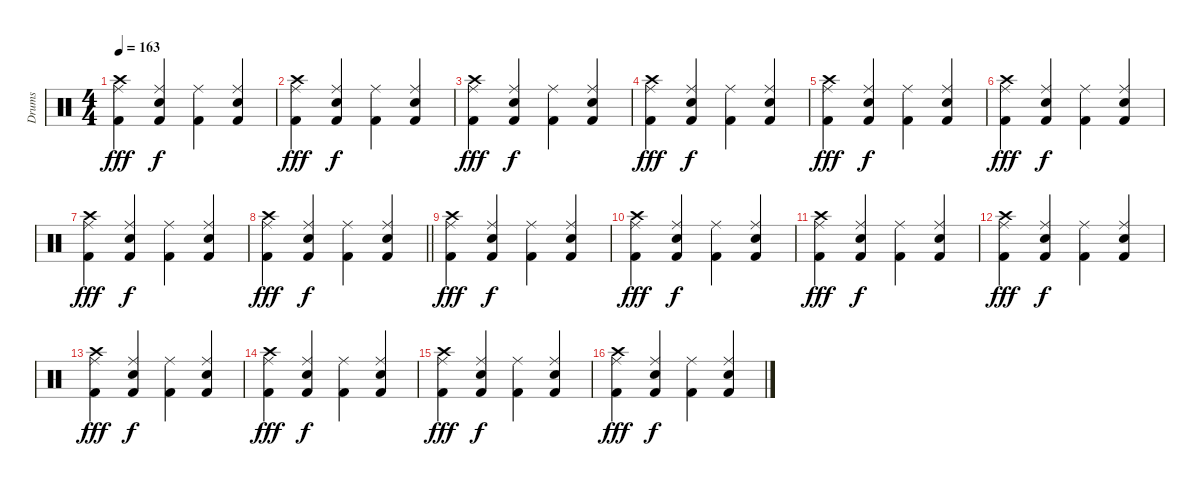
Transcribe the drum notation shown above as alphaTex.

\track ("Drums" "Drums") {instrument percussion}
\staff {score}
\articulation defaults
\ts (4 4)
\tempo 163
\clef neutral
\ks c
("Kick (hit) 2" "Crash high (hit)" "Ride (middle)").4{dy fff} ("Kick (hit) 2" "Snare (hit) 2" "Ride (middle)").4{dy f} ("Kick (hit) 2" "Ride (middle)").4 ("Kick (hit) 2" "Snare (hit) 2" "Ride (middle)").4 |
("Kick (hit) 2" "Crash high (hit)" "Ride (middle)").4{dy fff} ("Kick (hit) 2" "Snare (hit) 2" "Ride (middle)").4{dy f} ("Kick (hit) 2" "Ride (middle)").4 ("Kick (hit) 2" "Snare (hit) 2" "Ride (middle)").4 |
("Kick (hit) 2" "Crash high (hit)" "Ride (middle)").4{dy fff} ("Kick (hit) 2" "Snare (hit) 2" "Ride (middle)").4{dy f} ("Kick (hit) 2" "Ride (middle)").4 ("Kick (hit) 2" "Snare (hit) 2" "Ride (middle)").4 |
("Kick (hit) 2" "Crash high (hit)" "Ride (middle)").4{dy fff} ("Kick (hit) 2" "Snare (hit) 2" "Ride (middle)").4{dy f} ("Kick (hit) 2" "Ride (middle)").4 ("Kick (hit) 2" "Snare (hit) 2" "Ride (middle)").4 |
("Kick (hit) 2" "Crash high (hit)" "Ride (middle)").4{dy fff} ("Kick (hit) 2" "Snare (hit) 2" "Ride (middle)").4{dy f} ("Kick (hit) 2" "Ride (middle)").4 ("Kick (hit) 2" "Snare (hit) 2" "Ride (middle)").4 |
("Kick (hit) 2" "Crash high (hit)" "Ride (middle)").4{dy fff} ("Kick (hit) 2" "Snare (hit) 2" "Ride (middle)").4{dy f} ("Kick (hit) 2" "Ride (middle)").4 ("Kick (hit) 2" "Snare (hit) 2" "Ride (middle)").4 |
("Kick (hit) 2" "Crash high (hit)" "Ride (middle)").4{dy fff} ("Kick (hit) 2" "Snare (hit) 2" "Ride (middle)").4{dy f} ("Kick (hit) 2" "Ride (middle)").4 ("Kick (hit) 2" "Snare (hit) 2" "Ride (middle)").4 |
\barLineRight lightlight
("Kick (hit) 2" "Crash high (hit)" "Ride (middle)").4{dy fff} ("Kick (hit) 2" "Snare (hit) 2" "Ride (middle)").4{dy f} ("Kick (hit) 2" "Ride (middle)").4 ("Kick (hit) 2" "Snare (hit) 2" "Ride (middle)").4 |
("Kick (hit) 2" "Crash high (hit)" "Ride (middle)").4{dy fff} ("Kick (hit) 2" "Snare (hit) 2" "Ride (middle)").4{dy f} ("Kick (hit) 2" "Ride (middle)").4 ("Kick (hit) 2" "Snare (hit) 2" "Ride (middle)").4 |
("Kick (hit) 2" "Crash high (hit)" "Ride (middle)").4{dy fff} ("Kick (hit) 2" "Snare (hit) 2" "Ride (middle)").4{dy f} ("Kick (hit) 2" "Ride (middle)").4 ("Kick (hit) 2" "Snare (hit) 2" "Ride (middle)").4 |
("Kick (hit) 2" "Crash high (hit)" "Ride (middle)").4{dy fff} ("Kick (hit) 2" "Snare (hit) 2" "Ride (middle)").4{dy f} ("Kick (hit) 2" "Ride (middle)").4 ("Kick (hit) 2" "Snare (hit) 2" "Ride (middle)").4 |
("Kick (hit) 2" "Crash high (hit)" "Ride (middle)").4{dy fff} ("Kick (hit) 2" "Snare (hit) 2" "Ride (middle)").4{dy f} ("Kick (hit) 2" "Ride (middle)").4 ("Kick (hit) 2" "Snare (hit) 2" "Ride (middle)").4 |
("Kick (hit) 2" "Crash high (hit)" "Ride (middle)").4{dy fff} ("Kick (hit) 2" "Snare (hit) 2" "Ride (middle)").4{dy f} ("Kick (hit) 2" "Ride (middle)").4 ("Kick (hit) 2" "Snare (hit) 2" "Ride (middle)").4 |
("Kick (hit) 2" "Crash high (hit)" "Ride (middle)").4{dy fff} ("Kick (hit) 2" "Snare (hit) 2" "Ride (middle)").4{dy f} ("Kick (hit) 2" "Ride (middle)").4 ("Kick (hit) 2" "Snare (hit) 2" "Ride (middle)").4 |
("Kick (hit) 2" "Crash high (hit)" "Ride (middle)").4{dy fff} ("Kick (hit) 2" "Snare (hit) 2" "Ride (middle)").4{dy f} ("Kick (hit) 2" "Ride (middle)").4 ("Kick (hit) 2" "Snare (hit) 2" "Ride (middle)").4 |
("Kick (hit) 2" "Crash high (hit)" "Ride (middle)").4{dy fff} ("Kick (hit) 2" "Snare (hit) 2" "Ride (middle)").4{dy f} ("Kick (hit) 2" "Ride (middle)").4 ("Kick (hit) 2" "Snare (hit) 2" "Ride (middle)").4
